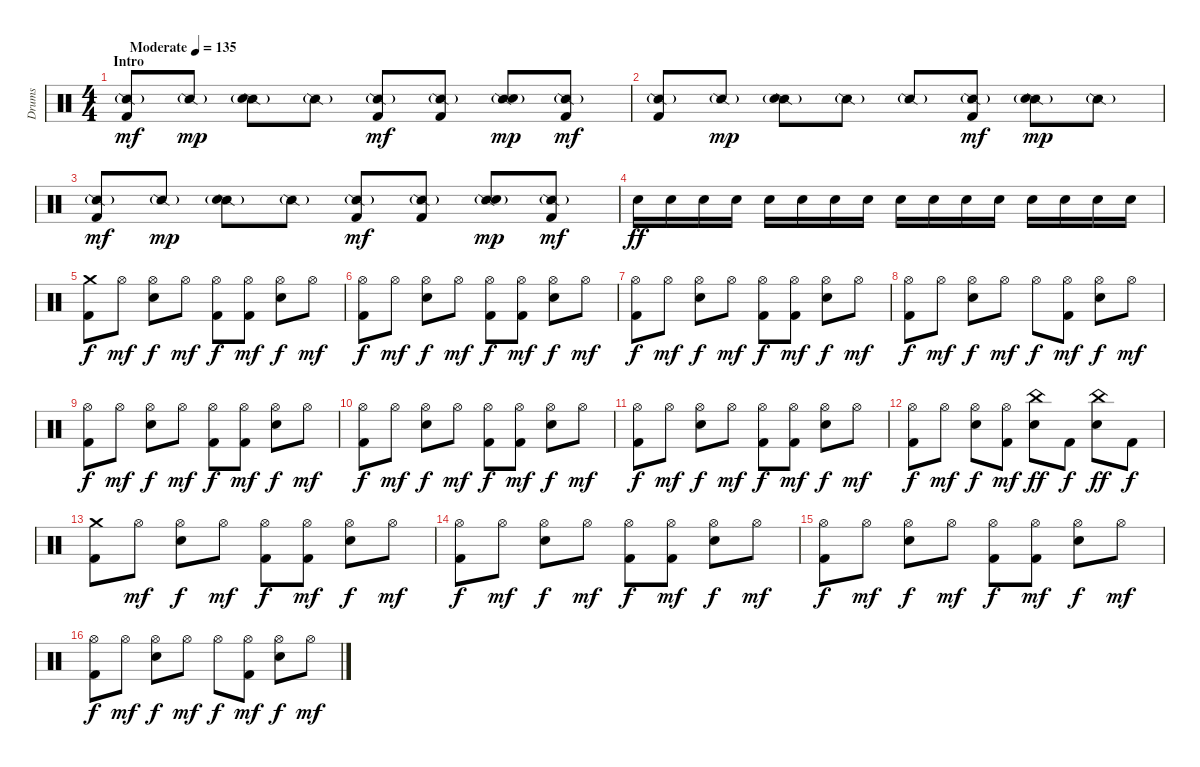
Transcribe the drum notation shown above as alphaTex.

\track ("Drums" "Drums") {instrument percussion}
\staff {score}
\articulation defaults
\ts (4 4)
\section ("" "Intro")
\tempo (135 "Moderate")
\clef neutral
\ks c
("Snare (side stick) 2"{g} "Kick (hit) 2").8{dy mf} "Snare (side stick) 2"{g}.8{dy mp} ("Snare (side stick) 2"{g} "Snare (hit) 2").8 "Snare (side stick) 2"{g}.8 ("Snare (side stick) 2"{g} "Kick (hit) 2").8{dy mf} ("Snare (side stick) 2"{g} "Kick (hit) 2").8 ("Snare (side stick) 2"{g} "Snare (hit) 2").8{dy mp} ("Snare (side stick) 2"{g} "Kick (hit) 2").8{dy mf} |
("Snare (side stick) 2"{g} "Kick (hit) 2").8 "Snare (side stick) 2"{g}.8{dy mp} ("Snare (side stick) 2"{g} "Snare (hit) 2").8 "Snare (side stick) 2"{g}.8 "Snare (side stick) 2"{g}.8 ("Snare (side stick) 2"{g} "Kick (hit) 2").8{dy mf} ("Snare (side stick) 2"{g} "Snare (hit) 2").8{dy mp} "Snare (side stick) 2"{g}.8 |
("Snare (side stick) 2"{g} "Kick (hit) 2").8{dy mf} "Snare (side stick) 2"{g}.8{dy mp} ("Snare (side stick) 2"{g} "Snare (hit) 2").8 "Snare (side stick) 2"{g}.8 ("Snare (side stick) 2"{g} "Kick (hit) 2").8{dy mf} ("Snare (side stick) 2"{g} "Kick (hit) 2").8 ("Snare (side stick) 2"{g} "Snare (hit) 2").8{dy mp} ("Snare (side stick) 2"{g} "Kick (hit) 2").8{dy mf} |
"Electric Snare (hit)".16{dy ff} "Electric Snare (hit)".16 "Electric Snare (hit)".16 "Electric Snare (hit)".16 "Electric Snare (hit)".16 "Electric Snare (hit)".16 "Electric Snare (hit)".16 "Electric Snare (hit)".16 "Electric Snare (hit)".16 "Electric Snare (hit)".16 "Electric Snare (hit)".16 "Electric Snare (hit)".16 "Electric Snare (hit)".16 "Electric Snare (hit)".16 "Electric Snare (hit)".16 "Electric Snare (hit)".16 |
("Crash medium (hit)" "Kick (hit) 2").8{dy f} "Hi-Hat (open)".8{dy mf} ("Hi-Hat (open)" "Electric Snare (hit)").8{dy f} "Hi-Hat (open)".8{dy mf} ("Hi-Hat (open)" "Kick (hit) 2").8{dy f} ("Hi-Hat (open)" "Kick (hit) 2").8{dy mf} ("Hi-Hat (open)" "Electric Snare (hit)").8{dy f} "Hi-Hat (open)".8{dy mf} |
("Hi-Hat (open)" "Kick (hit) 2").8{dy f} "Hi-Hat (open)".8{dy mf} ("Hi-Hat (open)" "Electric Snare (hit)").8{dy f} "Hi-Hat (open)".8{dy mf} ("Hi-Hat (open)" "Kick (hit) 2").8{dy f} ("Hi-Hat (open)" "Kick (hit) 2").8{dy mf} ("Hi-Hat (open)" "Electric Snare (hit)").8{dy f} "Hi-Hat (open)".8{dy mf} |
("Hi-Hat (open)" "Kick (hit) 2").8{dy f} "Hi-Hat (open)".8{dy mf} ("Hi-Hat (open)" "Electric Snare (hit)").8{dy f} "Hi-Hat (open)".8{dy mf} ("Hi-Hat (open)" "Kick (hit) 2").8{dy f} ("Hi-Hat (open)" "Kick (hit) 2").8{dy mf} ("Hi-Hat (open)" "Electric Snare (hit)").8{dy f} "Hi-Hat (open)".8{dy mf} |
("Hi-Hat (open)" "Kick (hit) 2").8{dy f} "Hi-Hat (open)".8{dy mf} ("Hi-Hat (open)" "Electric Snare (hit)").8{dy f} "Hi-Hat (open)".8{dy mf} "Hi-Hat (open)".8{dy f} ("Hi-Hat (open)" "Kick (hit) 2").8{dy mf} ("Hi-Hat (open)" "Electric Snare (hit)").8{dy f} "Hi-Hat (open)".8{dy mf} |
("Hi-Hat (open)" "Kick (hit) 2").8{dy f} "Hi-Hat (open)".8{dy mf} ("Hi-Hat (open)" "Electric Snare (hit)").8{dy f} "Hi-Hat (open)".8{dy mf} ("Hi-Hat (open)" "Kick (hit) 2").8{dy f} ("Hi-Hat (open)" "Kick (hit) 2").8{dy mf} ("Hi-Hat (open)" "Electric Snare (hit)").8{dy f} "Hi-Hat (open)".8{dy mf} |
("Hi-Hat (open)" "Kick (hit) 2").8{dy f} "Hi-Hat (open)".8{dy mf} ("Hi-Hat (open)" "Electric Snare (hit)").8{dy f} "Hi-Hat (open)".8{dy mf} ("Hi-Hat (open)" "Kick (hit) 2").8{dy f} ("Hi-Hat (open)" "Kick (hit) 2").8{dy mf} ("Hi-Hat (open)" "Electric Snare (hit)").8{dy f} "Hi-Hat (open)".8{dy mf} |
("Hi-Hat (open)" "Kick (hit) 2").8{dy f} "Hi-Hat (open)".8{dy mf} ("Hi-Hat (open)" "Electric Snare (hit)").8{dy f} "Hi-Hat (open)".8{dy mf} ("Hi-Hat (open)" "Kick (hit) 2").8{dy f} ("Hi-Hat (open)" "Kick (hit) 2").8{dy mf} ("Hi-Hat (open)" "Electric Snare (hit)").8{dy f} "Hi-Hat (open)".8{dy mf} |
("Hi-Hat (open)" "Kick (hit) 2").8{dy f} "Hi-Hat (open)".8{dy mf} ("Hi-Hat (open)" "Electric Snare (hit)").8{dy f} ("Hi-Hat (open)" "Kick (hit) 2").8{dy mf} ("China (hit)" "Electric Snare (hit)").8{dy ff} "Kick (hit) 2".8{dy f} ("China (hit)" "Electric Snare (hit)").8{dy ff} "Kick (hit) 2".8{dy f} |
("Crash medium (hit)" "Kick (hit) 2").8 "Hi-Hat (open)".8{dy mf} ("Hi-Hat (open)" "Electric Snare (hit)").8{dy f} "Hi-Hat (open)".8{dy mf} ("Hi-Hat (open)" "Kick (hit) 2").8{dy f} ("Hi-Hat (open)" "Kick (hit) 2").8{dy mf} ("Hi-Hat (open)" "Electric Snare (hit)").8{dy f} "Hi-Hat (open)".8{dy mf} |
("Hi-Hat (open)" "Kick (hit) 2").8{dy f} "Hi-Hat (open)".8{dy mf} ("Hi-Hat (open)" "Electric Snare (hit)").8{dy f} "Hi-Hat (open)".8{dy mf} ("Hi-Hat (open)" "Kick (hit) 2").8{dy f} ("Hi-Hat (open)" "Kick (hit) 2").8{dy mf} ("Hi-Hat (open)" "Electric Snare (hit)").8{dy f} "Hi-Hat (open)".8{dy mf} |
("Hi-Hat (open)" "Kick (hit) 2").8{dy f} "Hi-Hat (open)".8{dy mf} ("Hi-Hat (open)" "Electric Snare (hit)").8{dy f} "Hi-Hat (open)".8{dy mf} ("Hi-Hat (open)" "Kick (hit) 2").8{dy f} ("Hi-Hat (open)" "Kick (hit) 2").8{dy mf} ("Hi-Hat (open)" "Electric Snare (hit)").8{dy f} "Hi-Hat (open)".8{dy mf} |
("Hi-Hat (open)" "Kick (hit) 2").8{dy f} "Hi-Hat (open)".8{dy mf} ("Hi-Hat (open)" "Electric Snare (hit)").8{dy f} "Hi-Hat (open)".8{dy mf} "Hi-Hat (open)".8{dy f} ("Hi-Hat (open)" "Kick (hit) 2").8{dy mf} ("Hi-Hat (open)" "Electric Snare (hit)").8{dy f} "Hi-Hat (open)".8{dy mf}
